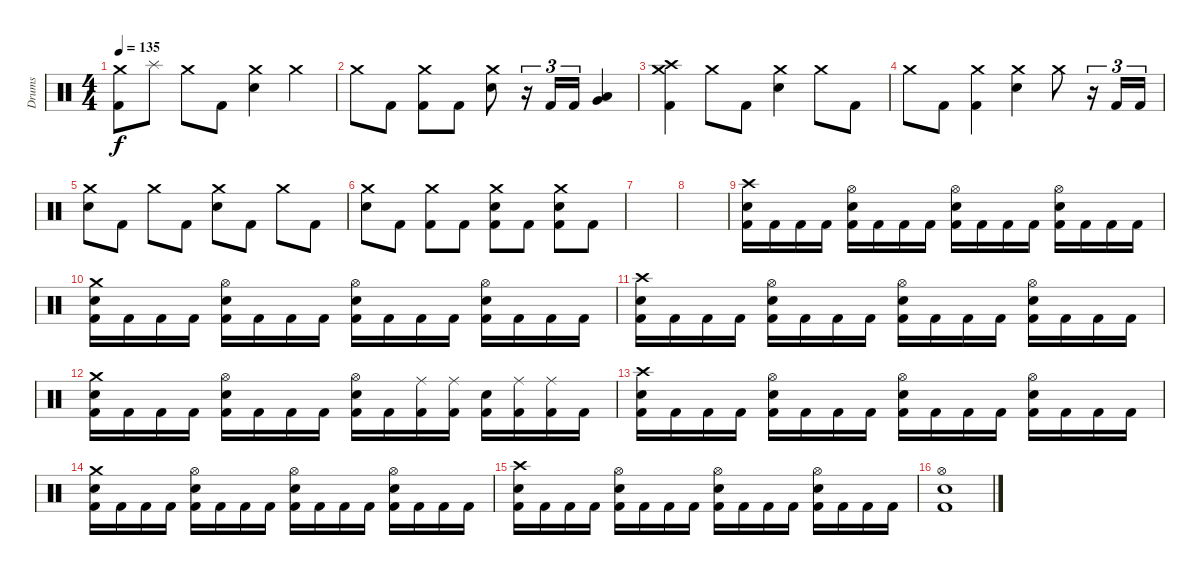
\track ("Drums" "Drums") {instrument percussion}
\staff {score}
\articulation defaults
\ts (4 4)
\tempo 135
\clef neutral
\ks c
("Crash medium (hit)" "Kick (hit) 2").8{dy f} "Splash (hit)".8 "Crash medium (hit)".8 "Kick (hit) 2".8 ("Crash medium (hit)" "Electric Snare (hit)").4 "Crash medium (hit)".4 |
"Crash medium (hit)".8 "Kick (hit) 2".8 ("Crash medium (hit)" "Kick (hit) 2").8 "Kick (hit) 2".8 ("Crash medium (hit)" "Electric Snare (hit)").8 r.16{tu (3 2)} "Kick (hit) 2".16{tu (3 2)} "Kick (hit) 2".16{tu (3 2)} ("Low Tom (hit)" "Very Low Tom (hit)").4 |
("Crash medium (hit)" "Crash high (hit)" "Kick (hit) 2").4 "Crash medium (hit)".8 "Kick (hit) 2".8 ("Crash medium (hit)" "Electric Snare (hit)").4 "Crash medium (hit)".8 "Kick (hit) 2".8 |
"Crash medium (hit)".8 "Kick (hit) 2".8 ("Crash medium (hit)" "Kick (hit) 2").4 ("Crash medium (hit)" "Electric Snare (hit)").4 "Crash medium (hit)".8 r.16{tu (3 2)} "Kick (hit) 2".16{tu (3 2)} "Kick (hit) 2".16{tu (3 2)} |
("Crash medium (hit)" "Electric Snare (hit)").8 "Kick (hit) 2".8 "Crash medium (hit)".8 "Kick (hit) 2".8 ("Crash medium (hit)" "Electric Snare (hit)").8 "Kick (hit) 2".8 "Crash medium (hit)".8 "Kick (hit) 2".8 |
("Crash medium (hit)" "Electric Snare (hit)").8 "Kick (hit) 2".8 ("Crash medium (hit)" "Kick (hit) 2").8 "Kick (hit) 2".8 ("Crash medium (hit)" "Electric Snare (hit)" "Kick (hit) 2").8 "Kick (hit) 2".8 ("Crash medium (hit)" "Electric Snare (hit)" "Kick (hit) 2").8 "Kick (hit) 2".8 |
|
|
("Crash high (hit)" "Electric Snare (hit)" "Kick (hit) 2").16 "Kick (hit) 2".16 "Kick (hit) 2".16 "Kick (hit) 2".16 ("Hi-Hat (open)" "Electric Snare (hit)" "Kick (hit) 2").16 "Kick (hit) 2".16 "Kick (hit) 2".16 "Kick (hit) 2".16 ("Hi-Hat (open)" "Electric Snare (hit)" "Kick (hit) 2").16 "Kick (hit) 2".16 "Kick (hit) 2".16 "Kick (hit) 2".16 ("Hi-Hat (open)" "Electric Snare (hit)" "Kick (hit) 2").16 "Kick (hit) 2".16 "Kick (hit) 2".16 "Kick (hit) 2".16 |
("Crash medium (hit)" "Electric Snare (hit)" "Kick (hit) 2").16 "Kick (hit) 2".16 "Kick (hit) 2".16 "Kick (hit) 2".16 ("Hi-Hat (open)" "Electric Snare (hit)" "Kick (hit) 2").16 "Kick (hit) 2".16 "Kick (hit) 2".16 "Kick (hit) 2".16 ("Hi-Hat (open)" "Electric Snare (hit)" "Kick (hit) 2").16 "Kick (hit) 2".16 "Kick (hit) 2".16 "Kick (hit) 2".16 ("Hi-Hat (open)" "Electric Snare (hit)" "Kick (hit) 2").16 "Kick (hit) 2".16 "Kick (hit) 2".16 "Kick (hit) 2".16 |
("Crash high (hit)" "Electric Snare (hit)" "Kick (hit) 2").16 "Kick (hit) 2".16 "Kick (hit) 2".16 "Kick (hit) 2".16 ("Hi-Hat (open)" "Electric Snare (hit)" "Kick (hit) 2").16 "Kick (hit) 2".16 "Kick (hit) 2".16 "Kick (hit) 2".16 ("Hi-Hat (open)" "Electric Snare (hit)" "Kick (hit) 2").16 "Kick (hit) 2".16 "Kick (hit) 2".16 "Kick (hit) 2".16 ("Hi-Hat (open)" "Electric Snare (hit)" "Kick (hit) 2").16 "Kick (hit) 2".16 "Kick (hit) 2".16 "Kick (hit) 2".16 |
("Crash medium (hit)" "Electric Snare (hit)" "Kick (hit) 2").16 "Kick (hit) 2".16 "Kick (hit) 2".16 "Kick (hit) 2".16 ("Hi-Hat (open)" "Electric Snare (hit)" "Kick (hit) 2").16 "Kick (hit) 2".16 "Kick (hit) 2".16 "Kick (hit) 2".16 ("Hi-Hat (open)" "Electric Snare (hit)" "Kick (hit) 2").16 "Kick (hit) 2".16 ("Ride (middle)" "Kick (hit) 2").16 ("Ride (middle)" "Kick (hit) 2").16 ("Electric Snare (hit)" "Kick (hit) 2").16 ("Ride (middle)" "Kick (hit) 2").16 ("Ride (middle)" "Kick (hit) 2").16 "Kick (hit) 2".16 |
("Crash high (hit)" "Electric Snare (hit)" "Kick (hit) 2").16 "Kick (hit) 2".16 "Kick (hit) 2".16 "Kick (hit) 2".16 ("Hi-Hat (open)" "Electric Snare (hit)" "Kick (hit) 2").16 "Kick (hit) 2".16 "Kick (hit) 2".16 "Kick (hit) 2".16 ("Hi-Hat (open)" "Electric Snare (hit)" "Kick (hit) 2").16 "Kick (hit) 2".16 "Kick (hit) 2".16 "Kick (hit) 2".16 ("Hi-Hat (open)" "Electric Snare (hit)" "Kick (hit) 2").16 "Kick (hit) 2".16 "Kick (hit) 2".16 "Kick (hit) 2".16 |
("Crash medium (hit)" "Electric Snare (hit)" "Kick (hit) 2").16 "Kick (hit) 2".16 "Kick (hit) 2".16 "Kick (hit) 2".16 ("Hi-Hat (open)" "Electric Snare (hit)" "Kick (hit) 2").16 "Kick (hit) 2".16 "Kick (hit) 2".16 "Kick (hit) 2".16 ("Hi-Hat (open)" "Electric Snare (hit)" "Kick (hit) 2").16 "Kick (hit) 2".16 "Kick (hit) 2".16 "Kick (hit) 2".16 ("Hi-Hat (open)" "Electric Snare (hit)" "Kick (hit) 2").16 "Kick (hit) 2".16 "Kick (hit) 2".16 "Kick (hit) 2".16 |
("Crash high (hit)" "Electric Snare (hit)" "Kick (hit) 2").16 "Kick (hit) 2".16 "Kick (hit) 2".16 "Kick (hit) 2".16 ("Hi-Hat (open)" "Electric Snare (hit)" "Kick (hit) 2").16 "Kick (hit) 2".16 "Kick (hit) 2".16 "Kick (hit) 2".16 ("Hi-Hat (open)" "Electric Snare (hit)" "Kick (hit) 2").16 "Kick (hit) 2".16 "Kick (hit) 2".16 "Kick (hit) 2".16 ("Hi-Hat (open)" "Electric Snare (hit)" "Kick (hit) 2").16 "Kick (hit) 2".16 "Kick (hit) 2".16 "Kick (hit) 2".16 |
("Hi-Hat (open)" "Electric Snare (hit)" "Kick (hit) 2").1
